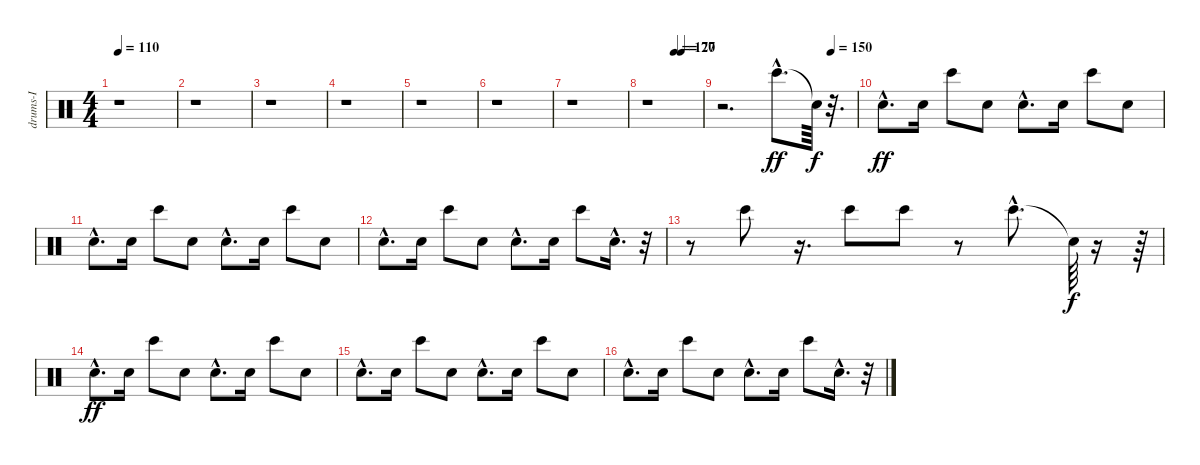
\track ("drums-I" "drums-I") {instrument percussion}
\staff {score}
\articulation defaults
\ts (4 4)
\tempo 110
\clef neutral
\ks c
r.1{dy ff} |
r.1 |
r.1 |
r.1 |
r.1 |
r.1 |
r.1 |
\tempo (120 0.5)
\tempo (77 0.625)
r.1 |
\tempo (150 0.8125)
r.2{d} "Bongo High (hit)"{hac}.8{d} "Snare (hit)"{t}.64{dy f} r.32{d} |
"Snare (hit)"{hac}.8{d dy ff} "Snare (hit)".16 "Bongo High (hit)".8 "Snare (hit)".8 "Snare (hit)"{hac}.8{d} "Snare (hit)".16 "Bongo High (hit)".8 "Snare (hit)".8 |
"Snare (hit)"{hac}.8{d} "Snare (hit)".16 "Bongo High (hit)".8 "Snare (hit)".8 "Snare (hit)"{hac}.8{d} "Snare (hit)".16 "Bongo High (hit)".8 "Snare (hit)".8 |
"Snare (hit)"{hac}.8{d} "Snare (hit)".16 "Bongo High (hit)".8 "Snare (hit)".8 "Snare (hit)"{hac}.8{d} "Snare (hit)".16 "Bongo High (hit)".8 "Snare (hit)"{hac}.16{d} r.32 |
r.8 "Bongo High (hit)".8 r.16{d} "Bongo High (hit)".8 "Bongo High (hit)".8 r.8 "Bongo High (hit)"{hac}.8{d} "Snare (hit)"{t}.64{dy f} r.16 r.64 |
"Snare (hit)"{hac}.8{d dy ff} "Snare (hit)".16 "Bongo High (hit)".8 "Snare (hit)".8 "Snare (hit)"{hac}.8{d} "Snare (hit)".16 "Bongo High (hit)".8 "Snare (hit)".8 |
"Snare (hit)"{hac}.8{d} "Snare (hit)".16 "Bongo High (hit)".8 "Snare (hit)".8 "Snare (hit)"{hac}.8{d} "Snare (hit)".16 "Bongo High (hit)".8 "Snare (hit)".8 |
"Snare (hit)"{hac}.8{d} "Snare (hit)".16 "Bongo High (hit)".8 "Snare (hit)".8 "Snare (hit)"{hac}.8{d} "Snare (hit)".16 "Bongo High (hit)".8 "Snare (hit)"{hac}.16{d} r.32
